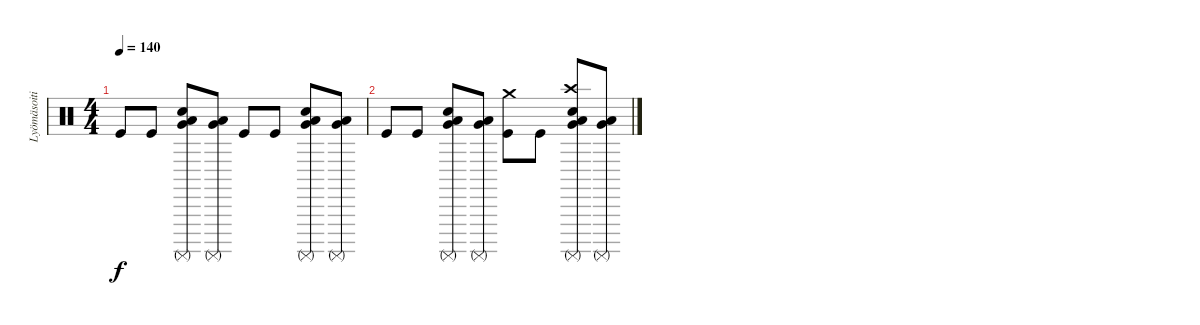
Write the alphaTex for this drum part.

\track ("Lyömäsoitin" "Lyömäsoiti") {instrument percussion}
\staff {score}
\articulation defaults
\ts (4 4)
\tempo 140
\clef neutral
\ks c "Kick (hit)".8{dy f} "Kick (hit)".8
("Surdo (mute)" "Low Floor Tom (hit)" "Very Low Tom (hit)" "Electric Snare (hit)").8 ("Surdo (mute)" "Low Floor Tom (hit)" "Very Low Tom (hit)").8 "Kick (hit)".8 "Kick (hit)".8 ("Surdo (mute)" "Low Floor Tom (hit)" "Very Low Tom (hit)" "Electric Snare (hit)").8 ("Surdo (mute)" "Low Floor Tom (hit)" "Very Low Tom (hit)").8 |
"Kick (hit)".8 "Kick (hit)".8 ("Surdo (mute)" "Low Floor Tom (hit)" "Very Low Tom (hit)" "Electric Snare (hit)").8 ("Surdo (mute)" "Low Floor Tom (hit)" "Very Low Tom (hit)").8 ("Kick (hit)" "Crash medium (hit)").8 "Kick (hit)".8 ("Surdo (mute)" "Low Floor Tom (hit)" "Very Low Tom (hit)" "Electric Snare (hit)" "Crash high (hit)").8 ("Surdo (mute)" "Low Floor Tom (hit)" "Very Low Tom (hit)").8
